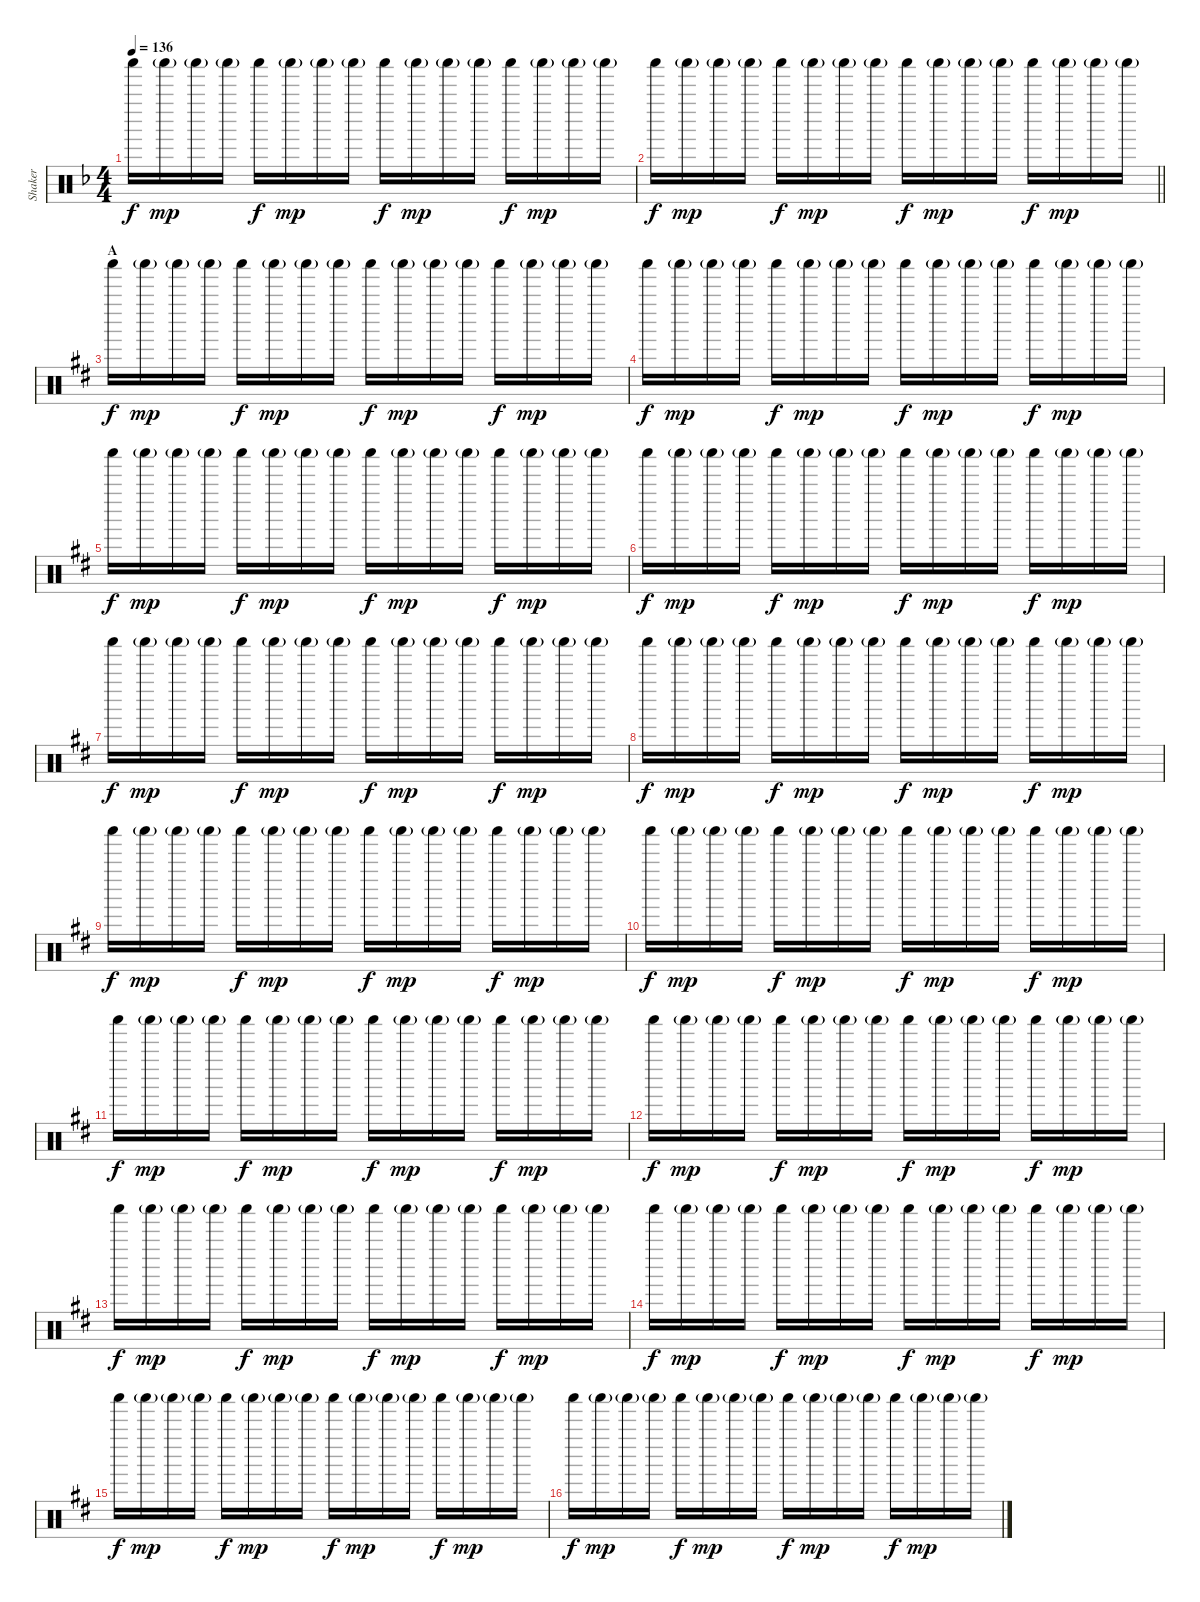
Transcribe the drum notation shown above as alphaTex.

\track ("Shaker" "Shaker") {instrument percussion}
\staff {score}
\articulation defaults
\ts (4 4)
\tempo 136
\clef neutral
\ks f "Shaker (hit)".16{dy f} "Shaker (hit)"{g}.16{dy mp} "Shaker (hit)"{g}.16 "Shaker (hit)"{g}.16 "Shaker (hit)".16{dy f} "Shaker (hit)"{g}.16{dy mp} "Shaker (hit)"{g}.16 "Shaker (hit)"{g}.16 "Shaker (hit)".16{dy f} "Shaker (hit)"{g}.16{dy mp} "Shaker (hit)"{g}.16 "Shaker (hit)"{g}.16 "Shaker (hit)".16{dy f} "Shaker (hit)"{g}.16{dy mp} "Shaker (hit)"{g}.16 "Shaker (hit)"{g}.16
|
\barLineRight lightlight "Shaker (hit)".16{dy f} "Shaker (hit)"{g}.16{dy mp} "Shaker (hit)"{g}.16 "Shaker (hit)"{g}.16 "Shaker (hit)".16{dy f} "Shaker (hit)"{g}.16{dy mp} "Shaker (hit)"{g}.16 "Shaker (hit)"{g}.16 "Shaker (hit)".16{dy f} "Shaker (hit)"{g}.16{dy mp} "Shaker (hit)"{g}.16 "Shaker (hit)"{g}.16 "Shaker (hit)".16{dy f} "Shaker (hit)"{g}.16{dy mp} "Shaker (hit)"{g}.16 "Shaker (hit)"{g}.16
|
\section ("" "A")
\ks d "Shaker (hit)".16{dy f} "Shaker (hit)"{g}.16{dy mp} "Shaker (hit)"{g}.16 "Shaker (hit)"{g}.16 "Shaker (hit)".16{dy f} "Shaker (hit)"{g}.16{dy mp} "Shaker (hit)"{g}.16 "Shaker (hit)"{g}.16 "Shaker (hit)".16{dy f} "Shaker (hit)"{g}.16{dy mp} "Shaker (hit)"{g}.16 "Shaker (hit)"{g}.16 "Shaker (hit)".16{dy f} "Shaker (hit)"{g}.16{dy mp} "Shaker (hit)"{g}.16 "Shaker (hit)"{g}.16
|
"Shaker (hit)".16{dy f} "Shaker (hit)"{g}.16{dy mp} "Shaker (hit)"{g}.16 "Shaker (hit)"{g}.16 "Shaker (hit)".16{dy f} "Shaker (hit)"{g}.16{dy mp} "Shaker (hit)"{g}.16 "Shaker (hit)"{g}.16 "Shaker (hit)".16{dy f} "Shaker (hit)"{g}.16{dy mp} "Shaker (hit)"{g}.16 "Shaker (hit)"{g}.16 "Shaker (hit)".16{dy f} "Shaker (hit)"{g}.16{dy mp} "Shaker (hit)"{g}.16 "Shaker (hit)"{g}.16 |
"Shaker (hit)".16{dy f} "Shaker (hit)"{g}.16{dy mp} "Shaker (hit)"{g}.16 "Shaker (hit)"{g}.16 "Shaker (hit)".16{dy f} "Shaker (hit)"{g}.16{dy mp} "Shaker (hit)"{g}.16 "Shaker (hit)"{g}.16 "Shaker (hit)".16{dy f} "Shaker (hit)"{g}.16{dy mp} "Shaker (hit)"{g}.16 "Shaker (hit)"{g}.16 "Shaker (hit)".16{dy f} "Shaker (hit)"{g}.16{dy mp} "Shaker (hit)"{g}.16 "Shaker (hit)"{g}.16 |
"Shaker (hit)".16{dy f} "Shaker (hit)"{g}.16{dy mp} "Shaker (hit)"{g}.16 "Shaker (hit)"{g}.16 "Shaker (hit)".16{dy f} "Shaker (hit)"{g}.16{dy mp} "Shaker (hit)"{g}.16 "Shaker (hit)"{g}.16 "Shaker (hit)".16{dy f} "Shaker (hit)"{g}.16{dy mp} "Shaker (hit)"{g}.16 "Shaker (hit)"{g}.16 "Shaker (hit)".16{dy f} "Shaker (hit)"{g}.16{dy mp} "Shaker (hit)"{g}.16 "Shaker (hit)"{g}.16 |
"Shaker (hit)".16{dy f} "Shaker (hit)"{g}.16{dy mp} "Shaker (hit)"{g}.16 "Shaker (hit)"{g}.16 "Shaker (hit)".16{dy f} "Shaker (hit)"{g}.16{dy mp} "Shaker (hit)"{g}.16 "Shaker (hit)"{g}.16 "Shaker (hit)".16{dy f} "Shaker (hit)"{g}.16{dy mp} "Shaker (hit)"{g}.16 "Shaker (hit)"{g}.16 "Shaker (hit)".16{dy f} "Shaker (hit)"{g}.16{dy mp} "Shaker (hit)"{g}.16 "Shaker (hit)"{g}.16 |
"Shaker (hit)".16{dy f} "Shaker (hit)"{g}.16{dy mp} "Shaker (hit)"{g}.16 "Shaker (hit)"{g}.16 "Shaker (hit)".16{dy f} "Shaker (hit)"{g}.16{dy mp} "Shaker (hit)"{g}.16 "Shaker (hit)"{g}.16 "Shaker (hit)".16{dy f} "Shaker (hit)"{g}.16{dy mp} "Shaker (hit)"{g}.16 "Shaker (hit)"{g}.16 "Shaker (hit)".16{dy f} "Shaker (hit)"{g}.16{dy mp} "Shaker (hit)"{g}.16 "Shaker (hit)"{g}.16 |
"Shaker (hit)".16{dy f} "Shaker (hit)"{g}.16{dy mp} "Shaker (hit)"{g}.16 "Shaker (hit)"{g}.16 "Shaker (hit)".16{dy f} "Shaker (hit)"{g}.16{dy mp} "Shaker (hit)"{g}.16 "Shaker (hit)"{g}.16 "Shaker (hit)".16{dy f} "Shaker (hit)"{g}.16{dy mp} "Shaker (hit)"{g}.16 "Shaker (hit)"{g}.16 "Shaker (hit)".16{dy f} "Shaker (hit)"{g}.16{dy mp} "Shaker (hit)"{g}.16 "Shaker (hit)"{g}.16 |
"Shaker (hit)".16{dy f} "Shaker (hit)"{g}.16{dy mp} "Shaker (hit)"{g}.16 "Shaker (hit)"{g}.16 "Shaker (hit)".16{dy f} "Shaker (hit)"{g}.16{dy mp} "Shaker (hit)"{g}.16 "Shaker (hit)"{g}.16 "Shaker (hit)".16{dy f} "Shaker (hit)"{g}.16{dy mp} "Shaker (hit)"{g}.16 "Shaker (hit)"{g}.16 "Shaker (hit)".16{dy f} "Shaker (hit)"{g}.16{dy mp} "Shaker (hit)"{g}.16 "Shaker (hit)"{g}.16 |
"Shaker (hit)".16{dy f} "Shaker (hit)"{g}.16{dy mp} "Shaker (hit)"{g}.16 "Shaker (hit)"{g}.16 "Shaker (hit)".16{dy f} "Shaker (hit)"{g}.16{dy mp} "Shaker (hit)"{g}.16 "Shaker (hit)"{g}.16 "Shaker (hit)".16{dy f} "Shaker (hit)"{g}.16{dy mp} "Shaker (hit)"{g}.16 "Shaker (hit)"{g}.16 "Shaker (hit)".16{dy f} "Shaker (hit)"{g}.16{dy mp} "Shaker (hit)"{g}.16 "Shaker (hit)"{g}.16 |
"Shaker (hit)".16{dy f} "Shaker (hit)"{g}.16{dy mp} "Shaker (hit)"{g}.16 "Shaker (hit)"{g}.16 "Shaker (hit)".16{dy f} "Shaker (hit)"{g}.16{dy mp} "Shaker (hit)"{g}.16 "Shaker (hit)"{g}.16 "Shaker (hit)".16{dy f} "Shaker (hit)"{g}.16{dy mp} "Shaker (hit)"{g}.16 "Shaker (hit)"{g}.16 "Shaker (hit)".16{dy f} "Shaker (hit)"{g}.16{dy mp} "Shaker (hit)"{g}.16 "Shaker (hit)"{g}.16 |
"Shaker (hit)".16{dy f} "Shaker (hit)"{g}.16{dy mp} "Shaker (hit)"{g}.16 "Shaker (hit)"{g}.16 "Shaker (hit)".16{dy f} "Shaker (hit)"{g}.16{dy mp} "Shaker (hit)"{g}.16 "Shaker (hit)"{g}.16 "Shaker (hit)".16{dy f} "Shaker (hit)"{g}.16{dy mp} "Shaker (hit)"{g}.16 "Shaker (hit)"{g}.16 "Shaker (hit)".16{dy f} "Shaker (hit)"{g}.16{dy mp} "Shaker (hit)"{g}.16 "Shaker (hit)"{g}.16 |
"Shaker (hit)".16{dy f} "Shaker (hit)"{g}.16{dy mp} "Shaker (hit)"{g}.16 "Shaker (hit)"{g}.16 "Shaker (hit)".16{dy f} "Shaker (hit)"{g}.16{dy mp} "Shaker (hit)"{g}.16 "Shaker (hit)"{g}.16 "Shaker (hit)".16{dy f} "Shaker (hit)"{g}.16{dy mp} "Shaker (hit)"{g}.16 "Shaker (hit)"{g}.16 "Shaker (hit)".16{dy f} "Shaker (hit)"{g}.16{dy mp} "Shaker (hit)"{g}.16 "Shaker (hit)"{g}.16 |
"Shaker (hit)".16{dy f} "Shaker (hit)"{g}.16{dy mp} "Shaker (hit)"{g}.16 "Shaker (hit)"{g}.16 "Shaker (hit)".16{dy f} "Shaker (hit)"{g}.16{dy mp} "Shaker (hit)"{g}.16 "Shaker (hit)"{g}.16 "Shaker (hit)".16{dy f} "Shaker (hit)"{g}.16{dy mp} "Shaker (hit)"{g}.16 "Shaker (hit)"{g}.16 "Shaker (hit)".16{dy f} "Shaker (hit)"{g}.16{dy mp} "Shaker (hit)"{g}.16 "Shaker (hit)"{g}.16 |
"Shaker (hit)".16{dy f} "Shaker (hit)"{g}.16{dy mp} "Shaker (hit)"{g}.16 "Shaker (hit)"{g}.16 "Shaker (hit)".16{dy f} "Shaker (hit)"{g}.16{dy mp} "Shaker (hit)"{g}.16 "Shaker (hit)"{g}.16 "Shaker (hit)".16{dy f} "Shaker (hit)"{g}.16{dy mp} "Shaker (hit)"{g}.16 "Shaker (hit)"{g}.16 "Shaker (hit)".16{dy f} "Shaker (hit)"{g}.16{dy mp} "Shaker (hit)"{g}.16 "Shaker (hit)"{g}.16
